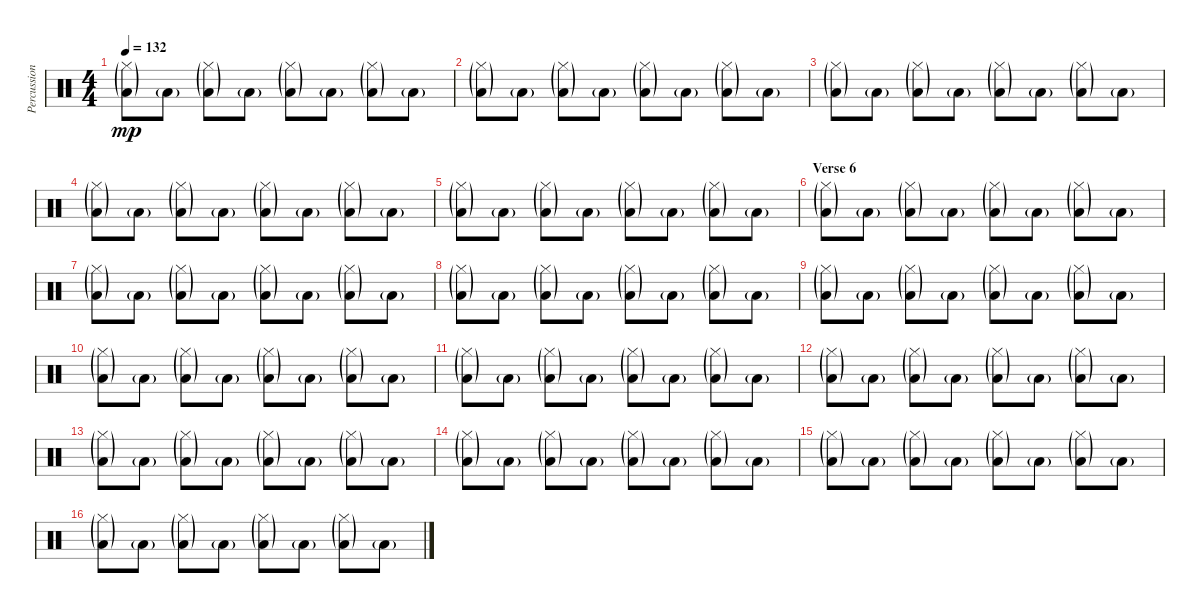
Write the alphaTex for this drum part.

\track ("Percussions" "Percussion") {instrument percussion}
\staff {score}
\articulation defaults
\ts (4 4)
\tempo 132
\clef neutral
\ks c
("Hi-Hat (closed)"{g} "Low Floor Tom (hit)"{g}).8{dy mp} "Low Floor Tom (hit)"{g}.8 ("Hi-Hat (closed)"{g} "Low Floor Tom (hit)"{g}).8 "Low Floor Tom (hit)"{g}.8 ("Hi-Hat (closed)"{g} "Low Floor Tom (hit)"{g}).8 "Low Floor Tom (hit)"{g}.8 ("Hi-Hat (closed)"{g} "Low Floor Tom (hit)"{g}).8 "Low Floor Tom (hit)"{g}.8 |
("Hi-Hat (closed)"{g} "Low Floor Tom (hit)"{g}).8 "Low Floor Tom (hit)"{g}.8 ("Hi-Hat (closed)"{g} "Low Floor Tom (hit)"{g}).8 "Low Floor Tom (hit)"{g}.8 ("Hi-Hat (closed)"{g} "Low Floor Tom (hit)"{g}).8 "Low Floor Tom (hit)"{g}.8 ("Hi-Hat (closed)"{g} "Low Floor Tom (hit)"{g}).8 "Low Floor Tom (hit)"{g}.8 |
("Hi-Hat (closed)"{g} "Low Floor Tom (hit)"{g}).8 "Low Floor Tom (hit)"{g}.8 ("Hi-Hat (closed)"{g} "Low Floor Tom (hit)"{g}).8 "Low Floor Tom (hit)"{g}.8 ("Hi-Hat (closed)"{g} "Low Floor Tom (hit)"{g}).8 "Low Floor Tom (hit)"{g}.8 ("Hi-Hat (closed)"{g} "Low Floor Tom (hit)"{g}).8 "Low Floor Tom (hit)"{g}.8 |
("Hi-Hat (closed)"{g} "Low Floor Tom (hit)"{g}).8 "Low Floor Tom (hit)"{g}.8 ("Hi-Hat (closed)"{g} "Low Floor Tom (hit)"{g}).8 "Low Floor Tom (hit)"{g}.8 ("Hi-Hat (closed)"{g} "Low Floor Tom (hit)"{g}).8 "Low Floor Tom (hit)"{g}.8 ("Hi-Hat (closed)"{g} "Low Floor Tom (hit)"{g}).8 "Low Floor Tom (hit)"{g}.8 |
("Hi-Hat (closed)"{g} "Low Floor Tom (hit)"{g}).8 "Low Floor Tom (hit)"{g}.8 ("Hi-Hat (closed)"{g} "Low Floor Tom (hit)"{g}).8 "Low Floor Tom (hit)"{g}.8 ("Hi-Hat (closed)"{g} "Low Floor Tom (hit)"{g}).8 "Low Floor Tom (hit)"{g}.8 ("Hi-Hat (closed)"{g} "Low Floor Tom (hit)"{g}).8 "Low Floor Tom (hit)"{g}.8 |
\section ("" "Verse 6")
("Hi-Hat (closed)"{g} "Low Floor Tom (hit)"{g}).8 "Low Floor Tom (hit)"{g}.8 ("Hi-Hat (closed)"{g} "Low Floor Tom (hit)"{g}).8 "Low Floor Tom (hit)"{g}.8 ("Hi-Hat (closed)"{g} "Low Floor Tom (hit)"{g}).8 "Low Floor Tom (hit)"{g}.8 ("Hi-Hat (closed)"{g} "Low Floor Tom (hit)"{g}).8 "Low Floor Tom (hit)"{g}.8 |
("Hi-Hat (closed)"{g} "Low Floor Tom (hit)"{g}).8 "Low Floor Tom (hit)"{g}.8 ("Hi-Hat (closed)"{g} "Low Floor Tom (hit)"{g}).8 "Low Floor Tom (hit)"{g}.8 ("Hi-Hat (closed)"{g} "Low Floor Tom (hit)"{g}).8 "Low Floor Tom (hit)"{g}.8 ("Hi-Hat (closed)"{g} "Low Floor Tom (hit)"{g}).8 "Low Floor Tom (hit)"{g}.8 |
("Hi-Hat (closed)"{g} "Low Floor Tom (hit)"{g}).8 "Low Floor Tom (hit)"{g}.8 ("Hi-Hat (closed)"{g} "Low Floor Tom (hit)"{g}).8 "Low Floor Tom (hit)"{g}.8 ("Hi-Hat (closed)"{g} "Low Floor Tom (hit)"{g}).8 "Low Floor Tom (hit)"{g}.8 ("Hi-Hat (closed)"{g} "Low Floor Tom (hit)"{g}).8 "Low Floor Tom (hit)"{g}.8 |
("Hi-Hat (closed)"{g} "Low Floor Tom (hit)"{g}).8 "Low Floor Tom (hit)"{g}.8 ("Hi-Hat (closed)"{g} "Low Floor Tom (hit)"{g}).8 "Low Floor Tom (hit)"{g}.8 ("Hi-Hat (closed)"{g} "Low Floor Tom (hit)"{g}).8 "Low Floor Tom (hit)"{g}.8 ("Hi-Hat (closed)"{g} "Low Floor Tom (hit)"{g}).8 "Low Floor Tom (hit)"{g}.8 |
("Hi-Hat (closed)"{g} "Low Floor Tom (hit)"{g}).8 "Low Floor Tom (hit)"{g}.8 ("Hi-Hat (closed)"{g} "Low Floor Tom (hit)"{g}).8 "Low Floor Tom (hit)"{g}.8 ("Hi-Hat (closed)"{g} "Low Floor Tom (hit)"{g}).8 "Low Floor Tom (hit)"{g}.8 ("Hi-Hat (closed)"{g} "Low Floor Tom (hit)"{g}).8 "Low Floor Tom (hit)"{g}.8 |
("Hi-Hat (closed)"{g} "Low Floor Tom (hit)"{g}).8 "Low Floor Tom (hit)"{g}.8 ("Hi-Hat (closed)"{g} "Low Floor Tom (hit)"{g}).8 "Low Floor Tom (hit)"{g}.8 ("Hi-Hat (closed)"{g} "Low Floor Tom (hit)"{g}).8 "Low Floor Tom (hit)"{g}.8 ("Hi-Hat (closed)"{g} "Low Floor Tom (hit)"{g}).8 "Low Floor Tom (hit)"{g}.8 |
("Hi-Hat (closed)"{g} "Low Floor Tom (hit)"{g}).8 "Low Floor Tom (hit)"{g}.8 ("Hi-Hat (closed)"{g} "Low Floor Tom (hit)"{g}).8 "Low Floor Tom (hit)"{g}.8 ("Hi-Hat (closed)"{g} "Low Floor Tom (hit)"{g}).8 "Low Floor Tom (hit)"{g}.8 ("Hi-Hat (closed)"{g} "Low Floor Tom (hit)"{g}).8 "Low Floor Tom (hit)"{g}.8 |
("Hi-Hat (closed)"{g} "Low Floor Tom (hit)"{g}).8 "Low Floor Tom (hit)"{g}.8 ("Hi-Hat (closed)"{g} "Low Floor Tom (hit)"{g}).8 "Low Floor Tom (hit)"{g}.8 ("Hi-Hat (closed)"{g} "Low Floor Tom (hit)"{g}).8 "Low Floor Tom (hit)"{g}.8 ("Hi-Hat (closed)"{g} "Low Floor Tom (hit)"{g}).8 "Low Floor Tom (hit)"{g}.8 |
("Hi-Hat (closed)"{g} "Low Floor Tom (hit)"{g}).8 "Low Floor Tom (hit)"{g}.8 ("Hi-Hat (closed)"{g} "Low Floor Tom (hit)"{g}).8 "Low Floor Tom (hit)"{g}.8 ("Hi-Hat (closed)"{g} "Low Floor Tom (hit)"{g}).8 "Low Floor Tom (hit)"{g}.8 ("Hi-Hat (closed)"{g} "Low Floor Tom (hit)"{g}).8 "Low Floor Tom (hit)"{g}.8 |
("Hi-Hat (closed)"{g} "Low Floor Tom (hit)"{g}).8 "Low Floor Tom (hit)"{g}.8 ("Hi-Hat (closed)"{g} "Low Floor Tom (hit)"{g}).8 "Low Floor Tom (hit)"{g}.8 ("Hi-Hat (closed)"{g} "Low Floor Tom (hit)"{g}).8 "Low Floor Tom (hit)"{g}.8 ("Hi-Hat (closed)"{g} "Low Floor Tom (hit)"{g}).8 "Low Floor Tom (hit)"{g}.8 |
("Hi-Hat (closed)"{g} "Low Floor Tom (hit)"{g}).8 "Low Floor Tom (hit)"{g}.8 ("Hi-Hat (closed)"{g} "Low Floor Tom (hit)"{g}).8 "Low Floor Tom (hit)"{g}.8 ("Hi-Hat (closed)"{g} "Low Floor Tom (hit)"{g}).8 "Low Floor Tom (hit)"{g}.8 ("Hi-Hat (closed)"{g} "Low Floor Tom (hit)"{g}).8 "Low Floor Tom (hit)"{g}.8
